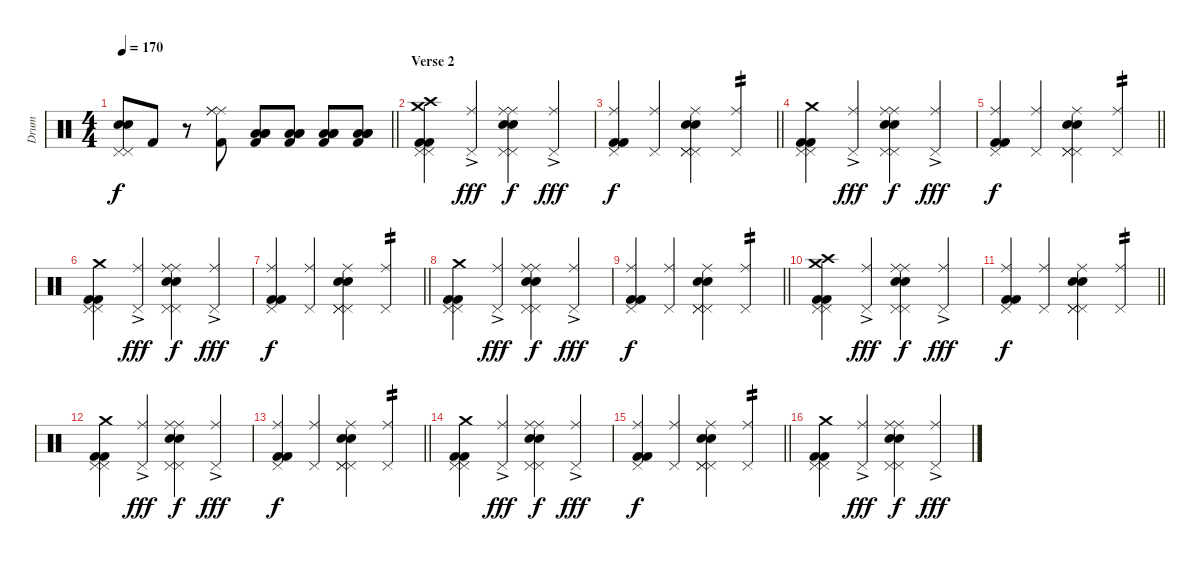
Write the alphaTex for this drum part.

\track ("Drum" "Drum") {instrument percussion}
\staff {score}
\articulation defaults
\ts (4 4)
\tempo 170
\clef neutral
\barLineRight lightlight
\ks c
("Electric Snare (hit)" "Electric Snare (hit)" "Pedal Hi-Hat (hit)" "Pedal Hi-Hat (hit)").8{dy f} "Kick (hit) 2".8 r.8 ("Kick (hit) 2" "Ride (middle)" "Ride (middle)" "Ride (middle)").8 ("Kick (hit) 2" "Low Tom (hit)" "Low Floor Tom (hit)" "Low Floor Tom (hit)").8 ("Kick (hit) 2" "Low Tom (hit)" "Low Floor Tom (hit)" "Low Floor Tom (hit)").8 ("Kick (hit) 2" "Low Tom (hit)" "Low Floor Tom (hit)" "Low Floor Tom (hit)").8 ("Kick (hit) 2" "Low Tom (hit)" "Low Floor Tom (hit)" "Low Floor Tom (hit)").8 |
\section ("" "Verse 2")
("Crash high (hit)" "Crash medium (hit)" "Kick (hit) 2" "Kick (hit) 2" "Pedal Hi-Hat (hit)" "Pedal Hi-Hat (hit)").4 ("Ride (middle)"{ac} "Pedal Hi-Hat (hit)"{ac}).4{dy fff} ("Electric Snare (hit)" "Electric Snare (hit)" "Pedal Hi-Hat (hit)" "Pedal Hi-Hat (hit)" "Ride (middle)" "Ride (middle)").4{dy f} ("Ride (middle)"{ac} "Pedal Hi-Hat (hit)"{ac}).4{dy fff} |
\barLineRight lightlight
("Kick (hit) 2" "Kick (hit) 2" "Ride (middle)" "Pedal Hi-Hat (hit)").4{dy f} ("Ride (middle)" "Pedal Hi-Hat (hit)").4 ("Electric Snare (hit)" "Electric Snare (hit)" "Pedal Hi-Hat (hit)" "Pedal Hi-Hat (hit)" "Ride (middle)" "Pedal Hi-Hat (hit)").4 ("Ride (middle)" "Pedal Hi-Hat (hit)").4{tp 2} |
("Crash medium (hit)" "Kick (hit) 2" "Kick (hit) 2" "Pedal Hi-Hat (hit)" "Pedal Hi-Hat (hit)").4 ("Ride (middle)"{ac} "Pedal Hi-Hat (hit)"{ac}).4{dy fff} ("Electric Snare (hit)" "Electric Snare (hit)" "Pedal Hi-Hat (hit)" "Pedal Hi-Hat (hit)" "Ride (middle)" "Ride (middle)").4{dy f} ("Ride (middle)"{ac} "Pedal Hi-Hat (hit)"{ac}).4{dy fff} |
\barLineRight lightlight
("Kick (hit) 2" "Kick (hit) 2" "Ride (middle)" "Pedal Hi-Hat (hit)").4{dy f} ("Ride (middle)" "Pedal Hi-Hat (hit)").4 ("Electric Snare (hit)" "Electric Snare (hit)" "Pedal Hi-Hat (hit)" "Pedal Hi-Hat (hit)" "Ride (middle)" "Pedal Hi-Hat (hit)").4 ("Ride (middle)" "Pedal Hi-Hat (hit)").4{tp 2} |
("Crash medium (hit)" "Kick (hit) 2" "Kick (hit) 2" "Pedal Hi-Hat (hit)" "Pedal Hi-Hat (hit)").4 ("Ride (middle)"{ac} "Pedal Hi-Hat (hit)"{ac}).4{dy fff} ("Electric Snare (hit)" "Electric Snare (hit)" "Pedal Hi-Hat (hit)" "Pedal Hi-Hat (hit)" "Ride (middle)" "Ride (middle)").4{dy f} ("Ride (middle)"{ac} "Pedal Hi-Hat (hit)"{ac}).4{dy fff} |
\barLineRight lightlight
("Kick (hit) 2" "Kick (hit) 2" "Ride (middle)" "Pedal Hi-Hat (hit)").4{dy f} ("Ride (middle)" "Pedal Hi-Hat (hit)").4 ("Electric Snare (hit)" "Electric Snare (hit)" "Pedal Hi-Hat (hit)" "Pedal Hi-Hat (hit)" "Ride (middle)" "Pedal Hi-Hat (hit)").4 ("Ride (middle)" "Pedal Hi-Hat (hit)").4{tp 2} |
("Crash medium (hit)" "Kick (hit) 2" "Kick (hit) 2" "Pedal Hi-Hat (hit)" "Pedal Hi-Hat (hit)").4 ("Ride (middle)"{ac} "Pedal Hi-Hat (hit)"{ac}).4{dy fff} ("Electric Snare (hit)" "Electric Snare (hit)" "Pedal Hi-Hat (hit)" "Pedal Hi-Hat (hit)" "Ride (middle)" "Ride (middle)").4{dy f} ("Ride (middle)"{ac} "Pedal Hi-Hat (hit)"{ac}).4{dy fff} |
\barLineRight lightlight
("Kick (hit) 2" "Kick (hit) 2" "Ride (middle)" "Pedal Hi-Hat (hit)").4{dy f} ("Ride (middle)" "Pedal Hi-Hat (hit)").4 ("Electric Snare (hit)" "Electric Snare (hit)" "Pedal Hi-Hat (hit)" "Pedal Hi-Hat (hit)" "Ride (middle)" "Pedal Hi-Hat (hit)").4 ("Ride (middle)" "Pedal Hi-Hat (hit)").4{tp 2} |
("Crash high (hit)" "Crash medium (hit)" "Kick (hit) 2" "Kick (hit) 2" "Pedal Hi-Hat (hit)" "Pedal Hi-Hat (hit)").4 ("Ride (middle)"{ac} "Pedal Hi-Hat (hit)"{ac}).4{dy fff} ("Electric Snare (hit)" "Electric Snare (hit)" "Pedal Hi-Hat (hit)" "Pedal Hi-Hat (hit)" "Ride (middle)" "Ride (middle)").4{dy f} ("Ride (middle)"{ac} "Pedal Hi-Hat (hit)"{ac}).4{dy fff} |
\barLineRight lightlight
("Kick (hit) 2" "Kick (hit) 2" "Ride (middle)" "Pedal Hi-Hat (hit)").4{dy f} ("Ride (middle)" "Pedal Hi-Hat (hit)").4 ("Electric Snare (hit)" "Electric Snare (hit)" "Pedal Hi-Hat (hit)" "Pedal Hi-Hat (hit)" "Ride (middle)" "Pedal Hi-Hat (hit)").4 ("Ride (middle)" "Pedal Hi-Hat (hit)").4{tp 2} |
("Crash medium (hit)" "Kick (hit) 2" "Kick (hit) 2" "Pedal Hi-Hat (hit)" "Pedal Hi-Hat (hit)").4 ("Ride (middle)"{ac} "Pedal Hi-Hat (hit)"{ac}).4{dy fff} ("Electric Snare (hit)" "Electric Snare (hit)" "Pedal Hi-Hat (hit)" "Pedal Hi-Hat (hit)" "Ride (middle)" "Ride (middle)").4{dy f} ("Ride (middle)"{ac} "Pedal Hi-Hat (hit)"{ac}).4{dy fff} |
\barLineRight lightlight
("Kick (hit) 2" "Kick (hit) 2" "Ride (middle)" "Pedal Hi-Hat (hit)").4{dy f} ("Ride (middle)" "Pedal Hi-Hat (hit)").4 ("Electric Snare (hit)" "Electric Snare (hit)" "Pedal Hi-Hat (hit)" "Pedal Hi-Hat (hit)" "Ride (middle)" "Pedal Hi-Hat (hit)").4 ("Ride (middle)" "Pedal Hi-Hat (hit)").4{tp 2} |
("Crash medium (hit)" "Kick (hit) 2" "Kick (hit) 2" "Pedal Hi-Hat (hit)" "Pedal Hi-Hat (hit)").4 ("Ride (middle)"{ac} "Pedal Hi-Hat (hit)"{ac}).4{dy fff} ("Electric Snare (hit)" "Electric Snare (hit)" "Pedal Hi-Hat (hit)" "Pedal Hi-Hat (hit)" "Ride (middle)" "Ride (middle)").4{dy f} ("Ride (middle)"{ac} "Pedal Hi-Hat (hit)"{ac}).4{dy fff} |
\barLineRight lightlight
("Kick (hit) 2" "Kick (hit) 2" "Ride (middle)" "Pedal Hi-Hat (hit)").4{dy f} ("Ride (middle)" "Pedal Hi-Hat (hit)").4 ("Electric Snare (hit)" "Electric Snare (hit)" "Pedal Hi-Hat (hit)" "Pedal Hi-Hat (hit)" "Ride (middle)" "Pedal Hi-Hat (hit)").4 ("Ride (middle)" "Pedal Hi-Hat (hit)").4{tp 2} |
("Crash medium (hit)" "Kick (hit) 2" "Kick (hit) 2" "Pedal Hi-Hat (hit)" "Pedal Hi-Hat (hit)").4 ("Ride (middle)"{ac} "Pedal Hi-Hat (hit)"{ac}).4{dy fff} ("Electric Snare (hit)" "Electric Snare (hit)" "Pedal Hi-Hat (hit)" "Pedal Hi-Hat (hit)" "Ride (middle)" "Ride (middle)").4{dy f} ("Ride (middle)"{ac} "Pedal Hi-Hat (hit)"{ac}).4{dy fff}
